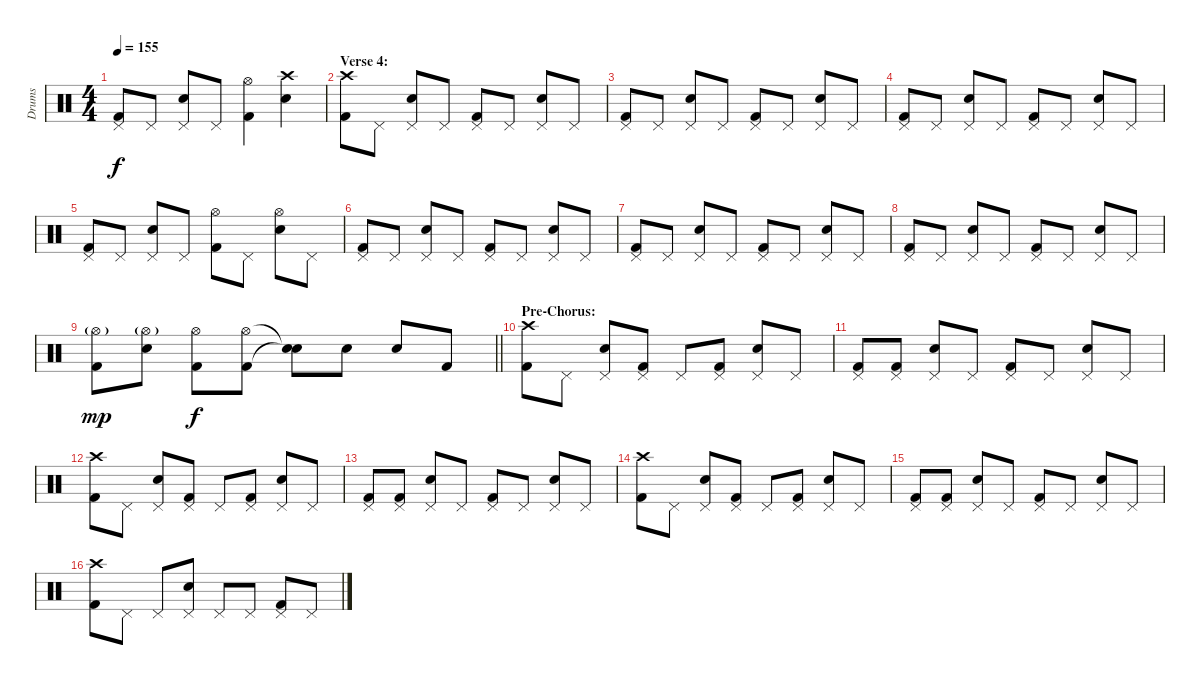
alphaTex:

\track ("Drums" "Drums") {instrument percussion}
\staff {score}
\articulation defaults
\ts (4 4)
\tempo 155
\clef neutral
\ks c
("Pedal Hi-Hat (hit)" "Kick (hit) 2").8{dy f} "Pedal Hi-Hat (hit)".8 ("Pedal Hi-Hat (hit)" "Electric Snare (hit)").8 "Pedal Hi-Hat (hit)".8 ("Hi-Hat (open)" "Kick (hit) 2").4 ("Crash high (hit)" "Electric Snare (hit)").4 |
\section ("" "Verse 4:")
("Crash high (hit)" "Kick (hit) 2").8 "Pedal Hi-Hat (hit)".8 ("Pedal Hi-Hat (hit)" "Electric Snare (hit)").8 "Pedal Hi-Hat (hit)".8 ("Pedal Hi-Hat (hit)" "Kick (hit) 2").8 "Pedal Hi-Hat (hit)".8 ("Pedal Hi-Hat (hit)" "Electric Snare (hit)").8 "Pedal Hi-Hat (hit)".8 |
("Pedal Hi-Hat (hit)" "Kick (hit) 2").8 "Pedal Hi-Hat (hit)".8 ("Pedal Hi-Hat (hit)" "Electric Snare (hit)").8 "Pedal Hi-Hat (hit)".8 ("Pedal Hi-Hat (hit)" "Kick (hit) 2").8 "Pedal Hi-Hat (hit)".8 ("Pedal Hi-Hat (hit)" "Electric Snare (hit)").8 "Pedal Hi-Hat (hit)".8 |
("Pedal Hi-Hat (hit)" "Kick (hit) 2").8 "Pedal Hi-Hat (hit)".8 ("Pedal Hi-Hat (hit)" "Electric Snare (hit)").8 "Pedal Hi-Hat (hit)".8 ("Pedal Hi-Hat (hit)" "Kick (hit) 2").8 "Pedal Hi-Hat (hit)".8 ("Pedal Hi-Hat (hit)" "Electric Snare (hit)").8 "Pedal Hi-Hat (hit)".8 |
("Pedal Hi-Hat (hit)" "Kick (hit) 2").8 "Pedal Hi-Hat (hit)".8 ("Pedal Hi-Hat (hit)" "Electric Snare (hit)").8 "Pedal Hi-Hat (hit)".8 ("Hi-Hat (open)" "Kick (hit) 2").8 "Pedal Hi-Hat (hit)".8 ("Hi-Hat (open)" "Electric Snare (hit)").8 "Pedal Hi-Hat (hit)".8 |
("Pedal Hi-Hat (hit)" "Kick (hit) 2").8 "Pedal Hi-Hat (hit)".8 ("Pedal Hi-Hat (hit)" "Electric Snare (hit)").8 "Pedal Hi-Hat (hit)".8 ("Pedal Hi-Hat (hit)" "Kick (hit) 2").8 "Pedal Hi-Hat (hit)".8 ("Pedal Hi-Hat (hit)" "Electric Snare (hit)").8 "Pedal Hi-Hat (hit)".8 |
("Pedal Hi-Hat (hit)" "Kick (hit) 2").8 "Pedal Hi-Hat (hit)".8 ("Pedal Hi-Hat (hit)" "Electric Snare (hit)").8 "Pedal Hi-Hat (hit)".8 ("Pedal Hi-Hat (hit)" "Kick (hit) 2").8 "Pedal Hi-Hat (hit)".8 ("Pedal Hi-Hat (hit)" "Electric Snare (hit)").8 "Pedal Hi-Hat (hit)".8 |
("Pedal Hi-Hat (hit)" "Kick (hit) 2").8 "Pedal Hi-Hat (hit)".8 ("Pedal Hi-Hat (hit)" "Electric Snare (hit)").8 "Pedal Hi-Hat (hit)".8 ("Pedal Hi-Hat (hit)" "Kick (hit) 2").8 "Pedal Hi-Hat (hit)".8 ("Pedal Hi-Hat (hit)" "Electric Snare (hit)").8 "Pedal Hi-Hat (hit)".8 |
\barLineRight lightlight
("Hi-Hat (open)"{g} "Kick (hit) 2").8{dy mp} ("Hi-Hat (open)"{g} "Electric Snare (hit)").8 ("Hi-Hat (open)" "Kick (hit) 2").8{dy f} ("Hi-Hat (open)" "Kick (hit) 2").8 ("Snare (hit)"{t} "Snare (hit)"{t}).8 "Electric Snare (hit)".8 "Electric Snare (hit)".8 "Kick (hit) 2".8 |
\section ("" "Pre-Chorus:")
("Crash high (hit)" "Kick (hit) 2").8 "Pedal Hi-Hat (hit)".8 ("Pedal Hi-Hat (hit)" "Electric Snare (hit)").8 ("Pedal Hi-Hat (hit)" "Kick (hit) 2").8 "Pedal Hi-Hat (hit)".8 ("Pedal Hi-Hat (hit)" "Kick (hit) 2").8 ("Pedal Hi-Hat (hit)" "Electric Snare (hit)").8 "Pedal Hi-Hat (hit)".8 |
("Pedal Hi-Hat (hit)" "Kick (hit) 2").8 ("Pedal Hi-Hat (hit)" "Kick (hit) 2").8 ("Pedal Hi-Hat (hit)" "Electric Snare (hit)").8 "Pedal Hi-Hat (hit)".8 ("Pedal Hi-Hat (hit)" "Kick (hit) 2").8 "Pedal Hi-Hat (hit)".8 ("Pedal Hi-Hat (hit)" "Electric Snare (hit)").8 "Pedal Hi-Hat (hit)".8 |
("Crash high (hit)" "Kick (hit) 2").8 "Pedal Hi-Hat (hit)".8 ("Pedal Hi-Hat (hit)" "Electric Snare (hit)").8 ("Pedal Hi-Hat (hit)" "Kick (hit) 2").8 "Pedal Hi-Hat (hit)".8 ("Pedal Hi-Hat (hit)" "Kick (hit) 2").8 ("Pedal Hi-Hat (hit)" "Electric Snare (hit)").8 "Pedal Hi-Hat (hit)".8 |
("Pedal Hi-Hat (hit)" "Kick (hit) 2").8 ("Pedal Hi-Hat (hit)" "Kick (hit) 2").8 ("Pedal Hi-Hat (hit)" "Electric Snare (hit)").8 "Pedal Hi-Hat (hit)".8 ("Pedal Hi-Hat (hit)" "Kick (hit) 2").8 "Pedal Hi-Hat (hit)".8 ("Pedal Hi-Hat (hit)" "Electric Snare (hit)").8 "Pedal Hi-Hat (hit)".8 |
("Crash high (hit)" "Kick (hit) 2").8 "Pedal Hi-Hat (hit)".8 ("Pedal Hi-Hat (hit)" "Electric Snare (hit)").8 ("Pedal Hi-Hat (hit)" "Kick (hit) 2").8 "Pedal Hi-Hat (hit)".8 ("Pedal Hi-Hat (hit)" "Kick (hit) 2").8 ("Pedal Hi-Hat (hit)" "Electric Snare (hit)").8 "Pedal Hi-Hat (hit)".8 |
("Pedal Hi-Hat (hit)" "Kick (hit) 2").8 ("Pedal Hi-Hat (hit)" "Kick (hit) 2").8 ("Pedal Hi-Hat (hit)" "Electric Snare (hit)").8 "Pedal Hi-Hat (hit)".8 ("Pedal Hi-Hat (hit)" "Kick (hit) 2").8 "Pedal Hi-Hat (hit)".8 ("Pedal Hi-Hat (hit)" "Electric Snare (hit)").8 "Pedal Hi-Hat (hit)".8 |
("Crash high (hit)" "Kick (hit) 2").8 "Pedal Hi-Hat (hit)".8 "Pedal Hi-Hat (hit)".8 ("Pedal Hi-Hat (hit)" "Electric Snare (hit)").8 "Pedal Hi-Hat (hit)".8 "Pedal Hi-Hat (hit)".8 ("Pedal Hi-Hat (hit)" "Kick (hit) 2").8 "Pedal Hi-Hat (hit)".8
